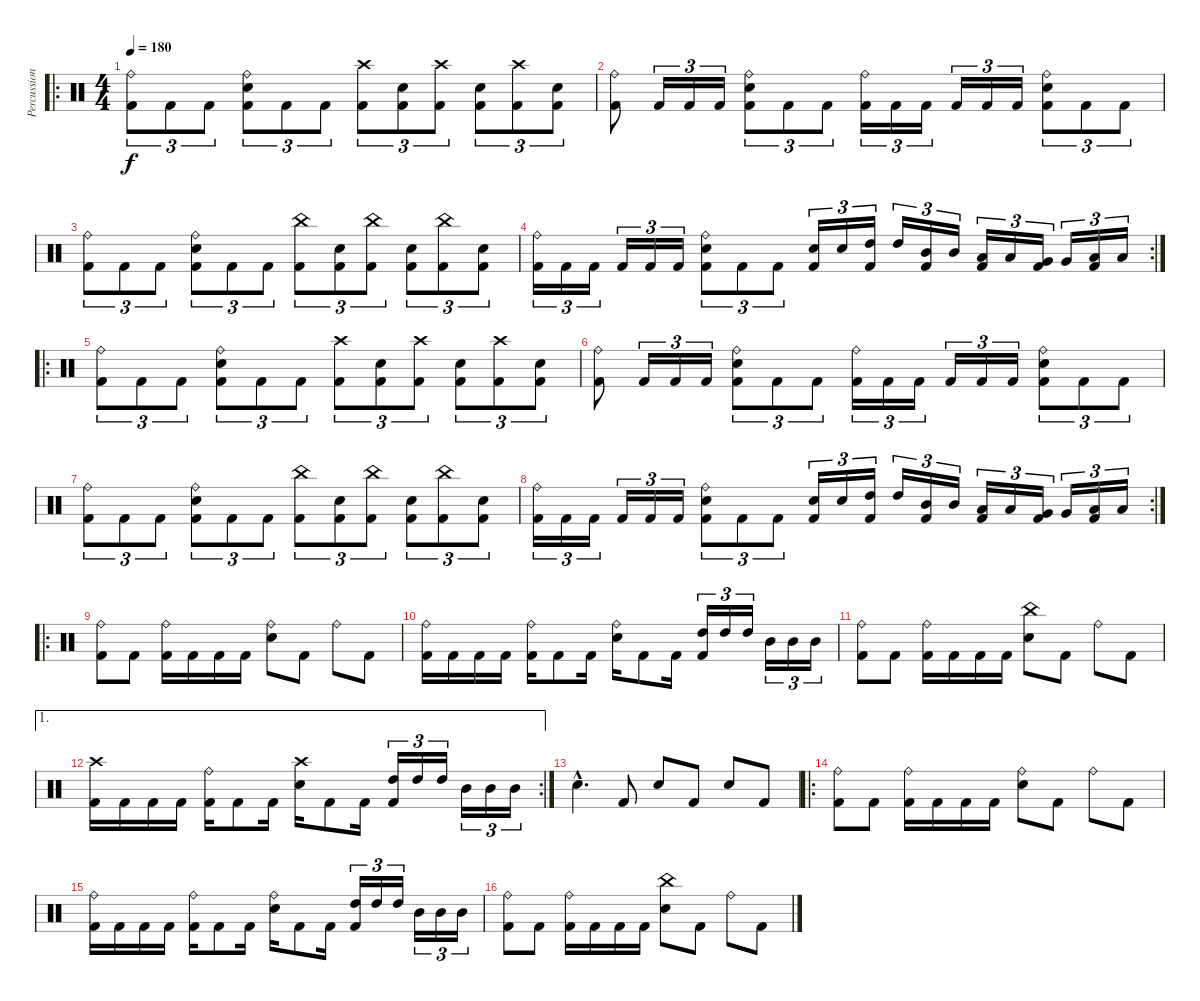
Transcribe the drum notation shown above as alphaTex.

\track ("Percussion" "Percussion") {instrument percussion}
\staff {score}
\articulation defaults
\ro
\ts (4 4)
\tempo 180
\clef neutral
\ks c
("Ride (bell)" "Kick (hit) 2").8{tu (3 2) dy f} "Kick (hit) 2".8{tu (3 2)} "Kick (hit) 2".8{tu (3 2)} ("Ride (bell)" "Snare (hit) 2" "Kick (hit) 2").8{tu (3 2)} "Kick (hit) 2".8{tu (3 2)} "Kick (hit) 2".8{tu (3 2)} ("Crash high (hit)" "Kick (hit) 2").8{tu (3 2)} ("Snare (hit) 2" "Kick (hit) 2").8{tu (3 2)} ("Crash high (hit)" "Kick (hit) 2").8{tu (3 2)} ("Snare (hit) 2" "Kick (hit) 2").8{tu (3 2)} ("Crash high (hit)" "Kick (hit) 2").8{tu (3 2)} ("Snare (hit) 2" "Kick (hit) 2").8{tu (3 2)} |
("Ride (bell)" "Kick (hit) 2").8 "Kick (hit) 2".16{tu (3 2)} "Kick (hit) 2".16{tu (3 2)} "Kick (hit) 2".16{tu (3 2)} ("Ride (bell)" "Snare (hit) 2" "Kick (hit) 2").8{tu (3 2)} "Kick (hit) 2".8{tu (3 2)} "Kick (hit) 2".8{tu (3 2)} ("Ride (bell)" "Kick (hit) 2").16{tu (3 2)} "Kick (hit) 2".16{tu (3 2)} "Kick (hit) 2".16{tu (3 2)} "Kick (hit) 2".16{tu (3 2)} "Kick (hit) 2".16{tu (3 2)} "Kick (hit) 2".16{tu (3 2)} ("Ride (bell)" "Snare (hit) 2" "Kick (hit) 2").8{tu (3 2)} "Kick (hit) 2".8{tu (3 2)} "Kick (hit) 2".8{tu (3 2)} |
("Ride (bell)" "Kick (hit) 2").8{tu (3 2)} "Kick (hit) 2".8{tu (3 2)} "Kick (hit) 2".8{tu (3 2)} ("Ride (bell)" "Snare (hit) 2" "Kick (hit) 2").8{tu (3 2)} "Kick (hit) 2".8{tu (3 2)} "Kick (hit) 2".8{tu (3 2)} ("China (hit)" "Kick (hit) 2").8{tu (3 2)} ("Snare (hit) 2" "Kick (hit) 2").8{tu (3 2)} ("China (hit)" "Kick (hit) 2").8{tu (3 2)} ("Snare (hit) 2" "Kick (hit) 2").8{tu (3 2)} ("China (hit)" "Kick (hit) 2").8{tu (3 2)} ("Snare (hit) 2" "Kick (hit) 2").8{tu (3 2)} |
\rc 2
("Ride (bell)" "Kick (hit) 2").16{tu (3 2)} "Kick (hit) 2".16{tu (3 2)} "Kick (hit) 2".16{tu (3 2)} "Kick (hit) 2".16{tu (3 2)} "Kick (hit) 2".16{tu (3 2)} "Kick (hit) 2".16{tu (3 2)} ("Ride (bell)" "Snare (hit) 2" "Kick (hit) 2").8{tu (3 2)} "Kick (hit) 2".8{tu (3 2)} "Kick (hit) 2".8{tu (3 2)} ("Snare (hit) 2" "Kick (hit) 2").16{tu (3 2)} "Snare (hit) 2".16{tu (3 2)} ("High Tom (hit)" "Kick (hit) 2").16{tu (3 2)} "High Tom (hit)".16{tu (3 2)} ("Mid Tom (hit)" "Kick (hit) 2").16{tu (3 2)} "Mid Tom (hit)".16{tu (3 2)} ("Low Tom (hit)" "Kick (hit) 2").16{tu (3 2)} "Low Tom (hit)".16{tu (3 2)} ("Very Low Tom (hit)" "Kick (hit) 2").16{tu (3 2)} "Very Low Tom (hit)".16{tu (3 2)} ("Low Floor Tom (hit)" "Kick (hit) 2").16{tu (3 2)} "Low Floor Tom (hit)".16{tu (3 2)} |
\ro
("Ride (bell)" "Kick (hit) 2").8{tu (3 2)} "Kick (hit) 2".8{tu (3 2)} "Kick (hit) 2".8{tu (3 2)} ("Ride (bell)" "Snare (hit) 2" "Kick (hit) 2").8{tu (3 2)} "Kick (hit) 2".8{tu (3 2)} "Kick (hit) 2".8{tu (3 2)} ("Crash high (hit)" "Kick (hit) 2").8{tu (3 2)} ("Snare (hit) 2" "Kick (hit) 2").8{tu (3 2)} ("Crash high (hit)" "Kick (hit) 2").8{tu (3 2)} ("Snare (hit) 2" "Kick (hit) 2").8{tu (3 2)} ("Crash high (hit)" "Kick (hit) 2").8{tu (3 2)} ("Snare (hit) 2" "Kick (hit) 2").8{tu (3 2)} |
("Ride (bell)" "Kick (hit) 2").8 "Kick (hit) 2".16{tu (3 2)} "Kick (hit) 2".16{tu (3 2)} "Kick (hit) 2".16{tu (3 2)} ("Ride (bell)" "Snare (hit) 2" "Kick (hit) 2").8{tu (3 2)} "Kick (hit) 2".8{tu (3 2)} "Kick (hit) 2".8{tu (3 2)} ("Ride (bell)" "Kick (hit) 2").16{tu (3 2)} "Kick (hit) 2".16{tu (3 2)} "Kick (hit) 2".16{tu (3 2)} "Kick (hit) 2".16{tu (3 2)} "Kick (hit) 2".16{tu (3 2)} "Kick (hit) 2".16{tu (3 2)} ("Ride (bell)" "Snare (hit) 2" "Kick (hit) 2").8{tu (3 2)} "Kick (hit) 2".8{tu (3 2)} "Kick (hit) 2".8{tu (3 2)} |
("Ride (bell)" "Kick (hit) 2").8{tu (3 2)} "Kick (hit) 2".8{tu (3 2)} "Kick (hit) 2".8{tu (3 2)} ("Ride (bell)" "Snare (hit) 2" "Kick (hit) 2").8{tu (3 2)} "Kick (hit) 2".8{tu (3 2)} "Kick (hit) 2".8{tu (3 2)} ("China (hit)" "Kick (hit) 2").8{tu (3 2)} ("Snare (hit) 2" "Kick (hit) 2").8{tu (3 2)} ("China (hit)" "Kick (hit) 2").8{tu (3 2)} ("Snare (hit) 2" "Kick (hit) 2").8{tu (3 2)} ("China (hit)" "Kick (hit) 2").8{tu (3 2)} ("Snare (hit) 2" "Kick (hit) 2").8{tu (3 2)} |
\rc 2
("Ride (bell)" "Kick (hit) 2").16{tu (3 2)} "Kick (hit) 2".16{tu (3 2)} "Kick (hit) 2".16{tu (3 2)} "Kick (hit) 2".16{tu (3 2)} "Kick (hit) 2".16{tu (3 2)} "Kick (hit) 2".16{tu (3 2)} ("Ride (bell)" "Snare (hit) 2" "Kick (hit) 2").8{tu (3 2)} "Kick (hit) 2".8{tu (3 2)} "Kick (hit) 2".8{tu (3 2)} ("Snare (hit) 2" "Kick (hit) 2").16{tu (3 2)} "Snare (hit) 2".16{tu (3 2)} ("High Tom (hit)" "Kick (hit) 2").16{tu (3 2)} "High Tom (hit)".16{tu (3 2)} ("Mid Tom (hit)" "Kick (hit) 2").16{tu (3 2)} "Mid Tom (hit)".16{tu (3 2)} ("Low Tom (hit)" "Kick (hit) 2").16{tu (3 2)} "Low Tom (hit)".16{tu (3 2)} ("Very Low Tom (hit)" "Kick (hit) 2").16{tu (3 2)} "Very Low Tom (hit)".16{tu (3 2)} ("Low Floor Tom (hit)" "Kick (hit) 2").16{tu (3 2)} "Low Floor Tom (hit)".16{tu (3 2)} |
\ro
("Ride (bell)" "Kick (hit) 2").8 "Kick (hit) 2".8 ("Ride (bell)" "Kick (hit) 2").16 "Kick (hit) 2".16 "Kick (hit) 2".16 "Kick (hit) 2".16 ("Ride (bell)" "Snare (hit) 2").8 "Kick (hit) 2".8 "Ride (bell)".8 "Kick (hit) 2".8 |
("Ride (bell)" "Kick (hit) 2").16 "Kick (hit) 2".16 "Kick (hit) 2".16 "Kick (hit) 2".16 ("Ride (bell)" "Kick (hit) 2").16 "Kick (hit) 2".8 "Kick (hit) 2".16 ("Ride (bell)" "Snare (hit) 2").16 "Kick (hit) 2".8 "Kick (hit) 2".16 ("High Tom (hit)" "Kick (hit) 2").16{tu (3 2)} "High Tom (hit)".16{tu (3 2)} "High Tom (hit)".16{tu (3 2)} "Mid Tom (hit)".16{tu (3 2)} "Mid Tom (hit)".16{tu (3 2)} "Mid Tom (hit)".16{tu (3 2)} |
("Ride (bell)" "Kick (hit) 2").8 "Kick (hit) 2".8 ("Ride (bell)" "Kick (hit) 2").16 "Kick (hit) 2".16 "Kick (hit) 2".16 "Kick (hit) 2".16 ("China (hit)" "Snare (hit) 2").8 "Kick (hit) 2".8 "Ride (bell)".8 "Kick (hit) 2".8 |
\ae 1
\rc 2
("Crash high (hit)" "Kick (hit) 2").16 "Kick (hit) 2".16 "Kick (hit) 2".16 "Kick (hit) 2".16 ("Ride (bell)" "Kick (hit) 2").16 "Kick (hit) 2".8 "Kick (hit) 2".16 ("Crash high (hit)" "Snare (hit) 2").16 "Kick (hit) 2".8 "Kick (hit) 2".16 ("High Tom (hit)" "Kick (hit) 2").16{tu (3 2)} "High Tom (hit)".16{tu (3 2)} "High Tom (hit)".16{tu (3 2)} "Mid Tom (hit)".16{tu (3 2)} "Mid Tom (hit)".16{tu (3 2)} "Mid Tom (hit)".16{tu (3 2)} |
"Snare (hit) 2"{hac}.4{d} "Kick (hit) 2".8 "Snare (hit) 2".8 "Kick (hit) 2".8 "Snare (hit) 2".8 "Kick (hit) 2".8 |
\ro
("Ride (bell)" "Kick (hit) 2").8 "Kick (hit) 2".8 ("Ride (bell)" "Kick (hit) 2").16 "Kick (hit) 2".16 "Kick (hit) 2".16 "Kick (hit) 2".16 ("Ride (bell)" "Snare (hit) 2").8 "Kick (hit) 2".8 "Ride (bell)".8 "Kick (hit) 2".8 |
("Ride (bell)" "Kick (hit) 2").16 "Kick (hit) 2".16 "Kick (hit) 2".16 "Kick (hit) 2".16 ("Ride (bell)" "Kick (hit) 2").16 "Kick (hit) 2".8 "Kick (hit) 2".16 ("Ride (bell)" "Snare (hit) 2").16 "Kick (hit) 2".8 "Kick (hit) 2".16 ("High Tom (hit)" "Kick (hit) 2").16{tu (3 2)} "High Tom (hit)".16{tu (3 2)} "High Tom (hit)".16{tu (3 2)} "Mid Tom (hit)".16{tu (3 2)} "Mid Tom (hit)".16{tu (3 2)} "Mid Tom (hit)".16{tu (3 2)} |
("Ride (bell)" "Kick (hit) 2").8 "Kick (hit) 2".8 ("Ride (bell)" "Kick (hit) 2").16 "Kick (hit) 2".16 "Kick (hit) 2".16 "Kick (hit) 2".16 ("China (hit)" "Snare (hit) 2").8 "Kick (hit) 2".8 "Ride (bell)".8 "Kick (hit) 2".8
